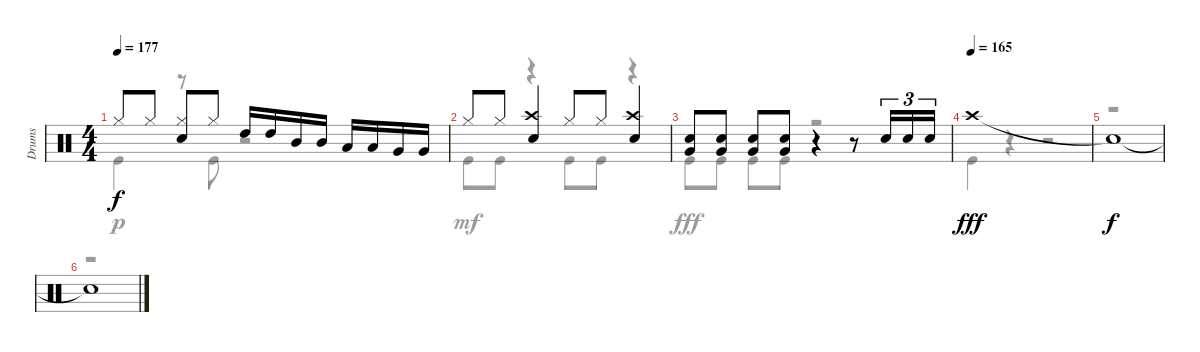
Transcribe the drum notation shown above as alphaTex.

\track ("Drums" "Drums") {instrument percussion}
\staff {score}
\articulation defaults
\voice
\ts (4 4)
\tempo 177
\clef neutral
\ks c "Hi-Hat (closed)".8{dy f} "Hi-Hat (closed)".8
("Hi-Hat (closed)" "Snare (hit) 2").8 "Hi-Hat (closed)".8 "High Tom (hit)".16 "High Tom (hit)".16 "Mid Tom (hit)".16 "Mid Tom (hit)".16 "Low Tom (hit)".16 "Low Tom (hit)".16 "Very Low Tom (hit)".16 "Very Low Tom (hit)".16 |
"Hi-Hat (closed)".8 "Hi-Hat (closed)".8 ("Crash high (hit)" "Snare (hit) 2").4 "Hi-Hat (closed)".8 "Hi-Hat (closed)".8 ("Crash high (hit)" "Snare (hit) 2").4 |
("Very Low Tom (hit)" "Snare (hit) 2").8 ("Very Low Tom (hit)" "Snare (hit) 2").8 ("Very Low Tom (hit)" "Snare (hit) 2").8 ("Very Low Tom (hit)" "Snare (hit) 2").8 r.4 r.8 "Snare (hit) 2".16{tu (3 2)} "Snare (hit) 2".16{tu (3 2)} "Snare (hit) 2".16{tu (3 2)} |
\tempo (165)
"Crash high (hit)".1{dy fff} |
"Snare (hit)"{t}.1{dy f} |
"Snare (hit)"{t}.1
\voice
\clef neutral
\ottava regular
\simile none
\ks c "Kick (hit)".4{dy p}
r.8 "Kick (hit)".8 r.2 |
"Kick (hit)".8{dy mf} "Kick (hit)".8 r.4 "Kick (hit)".8 "Kick (hit)".8 r.4 |
"Kick (hit)".8{dy fff} "Kick (hit)".8 "Kick (hit)".8 "Kick (hit)".8 r.2 |
"Kick (hit)".4 r.4 r.2 |
r.1 |
r.1
